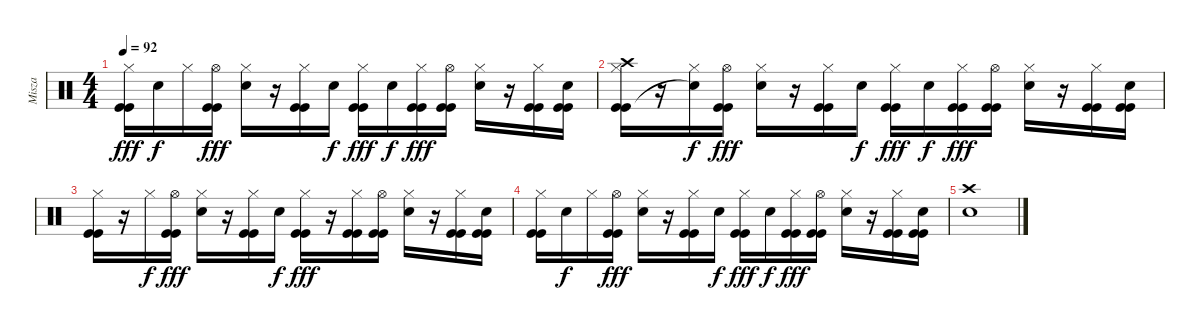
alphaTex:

\track ("Misza" "Misza") {instrument percussion}
\staff {score}
\articulation defaults
\ts (4 4)
\tempo 92
\clef neutral
\ks c
("Hi-Hat (closed)" "Kick (hit)" "Kick (hit)").16{dy fff} "Snare (hit) 2".16{dy f} "Hi-Hat (closed)".16 ("Hi-Hat (open)" "Kick (hit)" "Kick (hit)").16{dy fff} ("Hi-Hat (closed)" "Snare (hit) 2").16 r.16 ("Hi-Hat (closed)" "Kick (hit)" "Kick (hit)").16 "Snare (hit) 2".16{dy f} ("Hi-Hat (closed)" "Kick (hit)" "Kick (hit)").16{dy fff} "Snare (hit) 2".16{dy f} ("Hi-Hat (closed)" "Kick (hit)" "Kick (hit)").16{dy fff} ("Hi-Hat (open)" "Kick (hit)" "Kick (hit)").16 ("Hi-Hat (closed)" "Snare (hit) 2").16 r.16 ("Hi-Hat (closed)" "Kick (hit)" "Kick (hit)").16 ("Snare (hit) 2" "Kick (hit)" "Kick (hit)").16 |
("Hi-Hat (closed)" "Kick (hit)" "Kick (hit)" "Crash high (hit)").16 r.16 ("Hi-Hat (closed)" "Snare (hit)"{t}).16{dy f} ("Hi-Hat (open)" "Kick (hit)" "Kick (hit)").16{dy fff} ("Hi-Hat (closed)" "Snare (hit) 2").16 r.16 ("Hi-Hat (closed)" "Kick (hit)" "Kick (hit)").16 "Snare (hit) 2".16{dy f} ("Hi-Hat (closed)" "Kick (hit)" "Kick (hit)").16{dy fff} "Snare (hit) 2".16{dy f} ("Hi-Hat (closed)" "Kick (hit)" "Kick (hit)").16{dy fff} ("Hi-Hat (open)" "Kick (hit)" "Kick (hit)").16 ("Hi-Hat (closed)" "Snare (hit) 2").16 r.16 ("Hi-Hat (closed)" "Kick (hit)" "Kick (hit)").16 ("Snare (hit) 2" "Kick (hit)" "Kick (hit)").16 |
("Hi-Hat (closed)" "Kick (hit)" "Kick (hit)").16 r.16 "Hi-Hat (closed)".16{dy f} ("Hi-Hat (open)" "Kick (hit)" "Kick (hit)").16{dy fff} ("Hi-Hat (closed)" "Snare (hit) 2").16 r.16 ("Hi-Hat (closed)" "Kick (hit)" "Kick (hit)").16 "Snare (hit) 2".16{dy f} ("Hi-Hat (closed)" "Kick (hit)" "Kick (hit)").16{dy fff} r.16 ("Hi-Hat (closed)" "Kick (hit)" "Kick (hit)").16 ("Hi-Hat (open)" "Kick (hit)" "Kick (hit)").16 ("Hi-Hat (closed)" "Snare (hit) 2").16 r.16 ("Hi-Hat (closed)" "Kick (hit)" "Kick (hit)").16 ("Snare (hit) 2" "Kick (hit)" "Kick (hit)").16 |
("Hi-Hat (closed)" "Kick (hit)" "Kick (hit)").16 "Snare (hit) 2".16{dy f} "Hi-Hat (closed)".16 ("Hi-Hat (open)" "Kick (hit)" "Kick (hit)").16{dy fff} ("Hi-Hat (closed)" "Snare (hit) 2").16 r.16 ("Hi-Hat (closed)" "Kick (hit)" "Kick (hit)").16 "Snare (hit) 2".16{dy f} ("Hi-Hat (closed)" "Kick (hit)" "Kick (hit)").16{dy fff} "Snare (hit) 2".16{dy f} ("Hi-Hat (closed)" "Kick (hit)" "Kick (hit)").16{dy fff} ("Hi-Hat (open)" "Kick (hit)" "Kick (hit)").16 ("Hi-Hat (closed)" "Snare (hit) 2").16 r.16 ("Hi-Hat (closed)" "Kick (hit)" "Kick (hit)").16 ("Snare (hit) 2" "Kick (hit)" "Kick (hit)").16 |
("Crash high (hit)" "Snare (hit) 2").1
